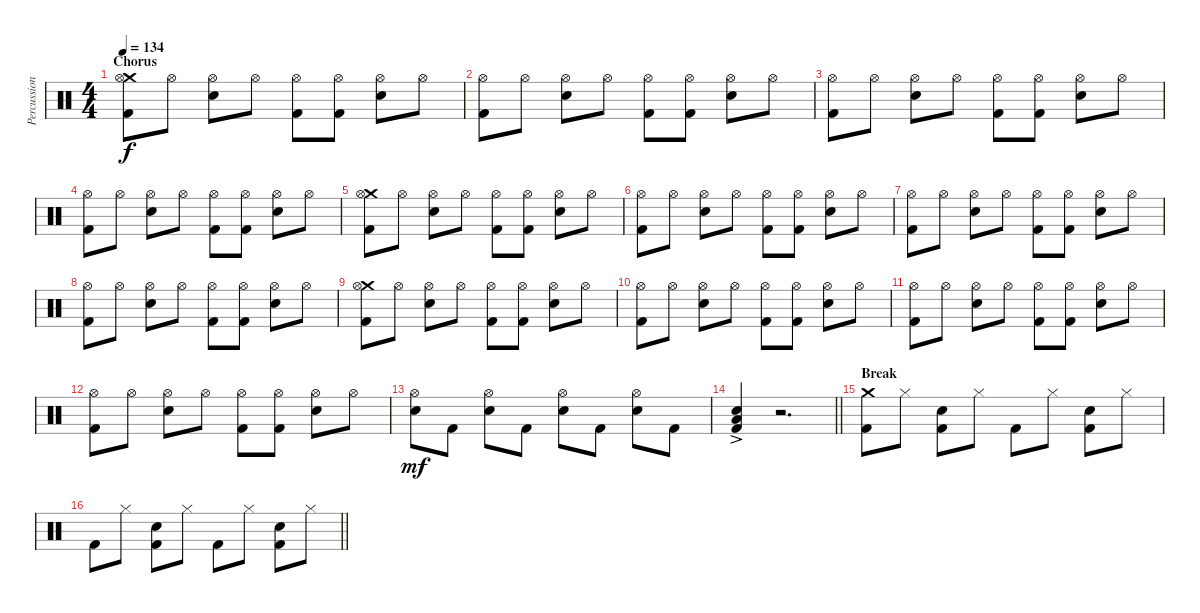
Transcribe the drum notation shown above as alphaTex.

\track ("Percussion" "Percussion") {instrument percussion}
\staff {score}
\articulation defaults
\ts (4 4)
\section ("" "Chorus")
\tempo 134
\clef neutral
\ks c
("Crash medium (hit)" "Hi-Hat (open)" "Kick (hit) 2").8{dy f} "Hi-Hat (open)".8 ("Hi-Hat (open)" "Snare (hit) 2").8 "Hi-Hat (open)".8 ("Hi-Hat (open)" "Kick (hit) 2").8 ("Hi-Hat (open)" "Kick (hit) 2").8 ("Hi-Hat (open)" "Snare (hit) 2").8 "Hi-Hat (open)".8 |
("Hi-Hat (open)" "Kick (hit) 2").8 "Hi-Hat (open)".8 ("Hi-Hat (open)" "Snare (hit) 2").8 "Hi-Hat (open)".8 ("Hi-Hat (open)" "Kick (hit) 2").8 ("Hi-Hat (open)" "Kick (hit) 2").8 ("Hi-Hat (open)" "Snare (hit) 2").8 "Hi-Hat (open)".8 |
("Hi-Hat (open)" "Kick (hit) 2").8 "Hi-Hat (open)".8 ("Hi-Hat (open)" "Snare (hit) 2").8 "Hi-Hat (open)".8 ("Hi-Hat (open)" "Kick (hit) 2").8 ("Hi-Hat (open)" "Kick (hit) 2").8 ("Hi-Hat (open)" "Snare (hit) 2").8 "Hi-Hat (open)".8 |
("Hi-Hat (open)" "Kick (hit) 2").8 "Hi-Hat (open)".8 ("Hi-Hat (open)" "Snare (hit) 2").8 "Hi-Hat (open)".8 ("Hi-Hat (open)" "Kick (hit) 2").8 ("Hi-Hat (open)" "Kick (hit) 2").8 ("Hi-Hat (open)" "Snare (hit) 2").8 "Hi-Hat (open)".8 |
("Crash medium (hit)" "Hi-Hat (open)" "Kick (hit) 2").8 "Hi-Hat (open)".8 ("Hi-Hat (open)" "Snare (hit) 2").8 "Hi-Hat (open)".8 ("Hi-Hat (open)" "Kick (hit) 2").8 ("Hi-Hat (open)" "Kick (hit) 2").8 ("Hi-Hat (open)" "Snare (hit) 2").8 "Hi-Hat (open)".8 |
("Hi-Hat (open)" "Kick (hit) 2").8 "Hi-Hat (open)".8 ("Hi-Hat (open)" "Snare (hit) 2").8 "Hi-Hat (open)".8 ("Hi-Hat (open)" "Kick (hit) 2").8 ("Hi-Hat (open)" "Kick (hit) 2").8 ("Hi-Hat (open)" "Snare (hit) 2").8 "Hi-Hat (open)".8 |
("Hi-Hat (open)" "Kick (hit) 2").8 "Hi-Hat (open)".8 ("Hi-Hat (open)" "Snare (hit) 2").8 "Hi-Hat (open)".8 ("Hi-Hat (open)" "Kick (hit) 2").8 ("Hi-Hat (open)" "Kick (hit) 2").8 ("Hi-Hat (open)" "Snare (hit) 2").8 "Hi-Hat (open)".8 |
("Hi-Hat (open)" "Kick (hit) 2").8 "Hi-Hat (open)".8 ("Hi-Hat (open)" "Snare (hit) 2").8 "Hi-Hat (open)".8 ("Hi-Hat (open)" "Kick (hit) 2").8 ("Hi-Hat (open)" "Kick (hit) 2").8 ("Hi-Hat (open)" "Snare (hit) 2").8 "Hi-Hat (open)".8 |
("Crash medium (hit)" "Hi-Hat (open)" "Kick (hit) 2").8 "Hi-Hat (open)".8 ("Hi-Hat (open)" "Snare (hit) 2").8 "Hi-Hat (open)".8 ("Hi-Hat (open)" "Kick (hit) 2").8 ("Hi-Hat (open)" "Kick (hit) 2").8 ("Hi-Hat (open)" "Snare (hit) 2").8 "Hi-Hat (open)".8 |
("Hi-Hat (open)" "Kick (hit) 2").8 "Hi-Hat (open)".8 ("Hi-Hat (open)" "Snare (hit) 2").8 "Hi-Hat (open)".8 ("Hi-Hat (open)" "Kick (hit) 2").8 ("Hi-Hat (open)" "Kick (hit) 2").8 ("Hi-Hat (open)" "Snare (hit) 2").8 "Hi-Hat (open)".8 |
("Hi-Hat (open)" "Kick (hit) 2").8 "Hi-Hat (open)".8 ("Hi-Hat (open)" "Snare (hit) 2").8 "Hi-Hat (open)".8 ("Hi-Hat (open)" "Kick (hit) 2").8 ("Hi-Hat (open)" "Kick (hit) 2").8 ("Hi-Hat (open)" "Snare (hit) 2").8 "Hi-Hat (open)".8 |
("Hi-Hat (open)" "Kick (hit) 2").8 "Hi-Hat (open)".8 ("Hi-Hat (open)" "Snare (hit) 2").8 "Hi-Hat (open)".8 ("Hi-Hat (open)" "Kick (hit) 2").8 ("Hi-Hat (open)" "Kick (hit) 2").8 ("Hi-Hat (open)" "Snare (hit) 2").8 "Hi-Hat (open)".8 |
("Hi-Hat (open)" "Snare (hit) 2").8{dy mf} "Kick (hit) 2".8 ("Hi-Hat (open)" "Snare (hit) 2").8 "Kick (hit) 2".8 ("Hi-Hat (open)" "Snare (hit) 2").8 "Kick (hit) 2".8 ("Hi-Hat (open)" "Snare (hit) 2").8 "Kick (hit) 2".8 |
\barLineRight lightlight
("Snare (hit) 2" "Low Floor Tom (hit)"{ac} "Kick (hit) 2").4 r.2{d} |
\section ("" "Break")
("Crash medium (hit)" "Kick (hit) 2").8 "Hi-Hat (closed)".8 ("Snare (hit) 2" "Kick (hit) 2").8 "Hi-Hat (closed)".8 "Kick (hit) 2".8 "Hi-Hat (closed)".8 ("Snare (hit) 2" "Kick (hit) 2").8 "Hi-Hat (closed)".8 |
\barLineRight lightlight "Kick (hit) 2".8 "Hi-Hat (closed)".8
("Snare (hit) 2" "Kick (hit) 2").8 "Hi-Hat (closed)".8 "Kick (hit) 2".8 "Hi-Hat (closed)".8 ("Snare (hit) 2" "Kick (hit) 2").8 "Hi-Hat (closed)".8
